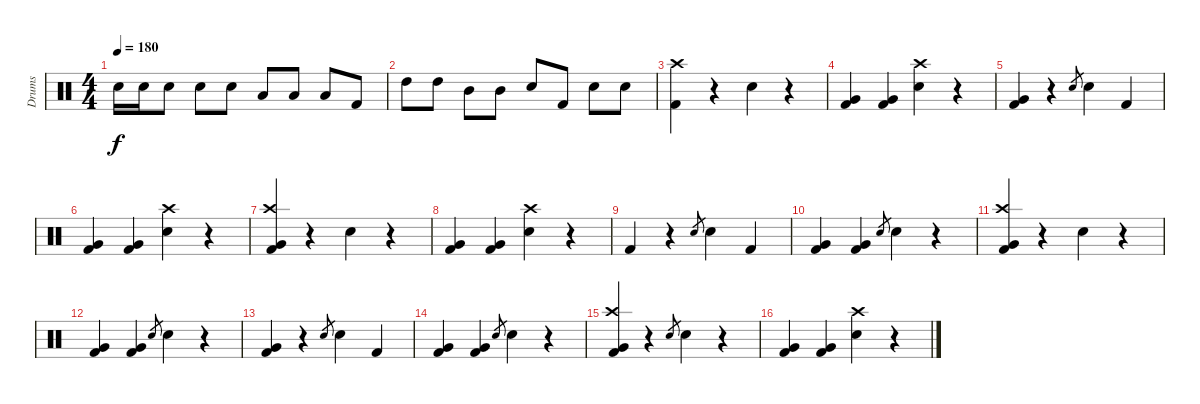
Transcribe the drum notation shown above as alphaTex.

\track ("Drums" "Drums") {instrument percussion}
\staff {score}
\articulation defaults
\ts (4 4)
\tempo 180
\clef neutral
\ks c "Electric Snare (hit)".16{dy f} "Electric Snare (hit)".16 "Electric Snare (hit)".8 "Electric Snare (hit)".8 "Electric Snare (hit)".8 "Low Tom (hit)".8 "Low Tom (hit)".8 "Low Tom (hit)".8 "Kick (hit) 2".8
|
"High Tom (hit)".8 "High Tom (hit)".8 "Mid Tom (hit)".8 "Mid Tom (hit)".8 "Electric Snare (hit)".8 "Kick (hit) 2".8 "Electric Snare (hit)".8 "Electric Snare (hit)".8 |
("Crash high (hit)" "Kick (hit) 2").4 r.4 "Electric Snare (hit)".4 r.4 |
("Very Low Tom (hit)" "Kick (hit) 2").4 ("Very Low Tom (hit)" "Kick (hit) 2").4 ("Crash high (hit)" "Electric Snare (hit)").4 r.4 |
("Very Low Tom (hit)" "Kick (hit) 2").4 r.4 "Electric Snare (hit)".8{gr} "Electric Snare (hit)".4 "Kick (hit) 2".4 |
("Very Low Tom (hit)" "Kick (hit) 2").4 ("Very Low Tom (hit)" "Kick (hit) 2").4 ("Crash high (hit)" "Electric Snare (hit)").4 r.4 |
("Crash high (hit)" "Very Low Tom (hit)" "Kick (hit) 2").4 r.4 "Electric Snare (hit)".4 r.4 |
("Very Low Tom (hit)" "Kick (hit) 2").4 ("Very Low Tom (hit)" "Kick (hit) 2").4 ("Crash high (hit)" "Electric Snare (hit)").4 r.4 |
"Kick (hit) 2".4 r.4 "Electric Snare (hit)".8{gr} "Electric Snare (hit)".4 "Kick (hit) 2".4 |
("Very Low Tom (hit)" "Kick (hit) 2").4 ("Very Low Tom (hit)" "Kick (hit) 2").4 "Electric Snare (hit)".8{gr} "Electric Snare (hit)".4 r.4 |
("Crash high (hit)" "Very Low Tom (hit)" "Kick (hit) 2").4 r.4 "Electric Snare (hit)".4 r.4 |
("Very Low Tom (hit)" "Kick (hit) 2").4 ("Very Low Tom (hit)" "Kick (hit) 2").4 "Electric Snare (hit)".8{gr} "Electric Snare (hit)".4 r.4 |
("Very Low Tom (hit)" "Kick (hit) 2").4 r.4 "Electric Snare (hit)".8{gr} "Electric Snare (hit)".4 "Kick (hit) 2".4 |
("Very Low Tom (hit)" "Kick (hit) 2").4 ("Very Low Tom (hit)" "Kick (hit) 2").4 "Electric Snare (hit)".8{gr} "Electric Snare (hit)".4 r.4 |
("Crash high (hit)" "Very Low Tom (hit)" "Kick (hit) 2").4 r.4 "Electric Snare (hit)".8{gr} "Electric Snare (hit)".4 r.4 |
("Very Low Tom (hit)" "Kick (hit) 2").4 ("Very Low Tom (hit)" "Kick (hit) 2").4 ("Crash high (hit)" "Electric Snare (hit)").4 r.4
